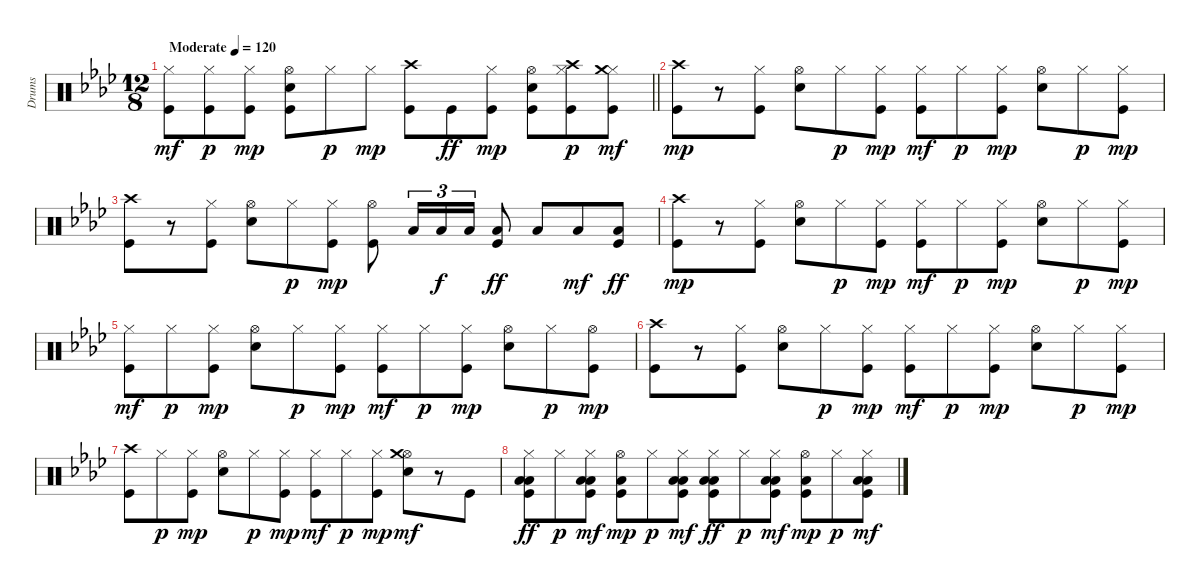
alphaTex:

\track ("Drums" "Drums") {instrument percussion}
\staff {score}
\articulation defaults
\ts (12 8)
\tempo (120 "Moderate")
\clef neutral
\barLineRight lightlight
\ks ab
("Kick (hit)" "Hi-Hat (closed)").8{dy mf} ("Kick (hit)" "Hi-Hat (closed)").8{dy p} ("Kick (hit)" "Hi-Hat (closed)").8{dy mp} ("Kick (hit)" "Electric Snare (hit)" "Hi-Hat (open)").8 "Hi-Hat (closed)".8{dy p} "Hi-Hat (closed)".8{dy mp} ("Kick (hit)" "Crash high (hit)").8 "Kick (hit)".8{dy ff} ("Kick (hit)" "Hi-Hat (closed)").8{dy mp} ("Kick (hit)" "Electric Snare (hit)" "Hi-Hat (open)").8 ("Kick (hit)" "Hi-Hat (closed)" "Crash high (hit)").8{dy p} ("Kick (hit)" "Hi-Hat (closed)" "Crash medium (hit)").8{dy mf} |
("Kick (hit)" "Crash high (hit)").8{dy mp} r.8 ("Kick (hit)" "Hi-Hat (closed)").8 ("Electric Snare (hit)" "Hi-Hat (open)").8 "Hi-Hat (closed)".8{dy p} ("Kick (hit)" "Hi-Hat (closed)").8{dy mp} ("Kick (hit)" "Hi-Hat (closed)").8{dy mf} "Hi-Hat (closed)".8{dy p} ("Kick (hit)" "Hi-Hat (closed)").8{dy mp} ("Electric Snare (hit)" "Hi-Hat (open)").8 "Hi-Hat (closed)".8{dy p} ("Kick (hit)" "Hi-Hat (closed)").8{dy mp} |
("Kick (hit)" "Crash high (hit)").8 r.8 ("Kick (hit)" "Hi-Hat (closed)").8 ("Electric Snare (hit)" "Hi-Hat (open)").8 "Hi-Hat (closed)".8{dy p} ("Kick (hit)" "Hi-Hat (closed)").8{dy mp} ("Kick (hit)" "Hi-Hat (open)").8 "Low Tom (hit)".16{tu (3 2)} "Low Tom (hit)".16{tu (3 2) dy f} "Low Tom (hit)".16{tu (3 2)} ("Kick (hit)" "Low Tom (hit)").8{dy ff} "Low Floor Tom (hit)".8 "Low Floor Tom (hit)".8{dy mf} ("Kick (hit)" "Low Floor Tom (hit)").8{dy ff} |
("Kick (hit)" "Crash high (hit)").8{dy mp} r.8 ("Kick (hit)" "Hi-Hat (closed)").8 ("Electric Snare (hit)" "Hi-Hat (open)").8 "Hi-Hat (closed)".8{dy p} ("Kick (hit)" "Hi-Hat (closed)").8{dy mp} ("Kick (hit)" "Hi-Hat (closed)").8{dy mf} "Hi-Hat (closed)".8{dy p} ("Kick (hit)" "Hi-Hat (closed)").8{dy mp} ("Electric Snare (hit)" "Hi-Hat (open)").8 "Hi-Hat (closed)".8{dy p} ("Kick (hit)" "Hi-Hat (closed)").8{dy mp} |
("Kick (hit)" "Hi-Hat (closed)").8{dy mf} "Hi-Hat (closed)".8{dy p} ("Kick (hit)" "Hi-Hat (closed)").8{dy mp} ("Electric Snare (hit)" "Hi-Hat (open)").8 "Hi-Hat (closed)".8{dy p} ("Kick (hit)" "Hi-Hat (closed)").8{dy mp} ("Kick (hit)" "Hi-Hat (closed)").8{dy mf} "Hi-Hat (closed)".8{dy p} ("Kick (hit)" "Hi-Hat (closed)").8{dy mp} ("Electric Snare (hit)" "Hi-Hat (open)").8 "Hi-Hat (closed)".8{dy p} ("Kick (hit)" "Hi-Hat (open)").8{dy mp} |
("Kick (hit)" "Crash high (hit)").8 r.8 ("Kick (hit)" "Hi-Hat (closed)").8 ("Electric Snare (hit)" "Hi-Hat (open)").8 "Hi-Hat (closed)".8{dy p} ("Kick (hit)" "Hi-Hat (closed)").8{dy mp} ("Kick (hit)" "Hi-Hat (closed)").8{dy mf} "Hi-Hat (closed)".8{dy p} ("Kick (hit)" "Hi-Hat (closed)").8{dy mp} ("Electric Snare (hit)" "Hi-Hat (open)").8 "Hi-Hat (closed)".8{dy p} ("Kick (hit)" "Hi-Hat (closed)").8{dy mp} |
("Kick (hit)" "Crash high (hit)").8 "Hi-Hat (closed)".8{dy p} ("Kick (hit)" "Hi-Hat (closed)").8{dy mp} ("Electric Snare (hit)" "Hi-Hat (open)").8 "Hi-Hat (closed)".8{dy p} ("Kick (hit)" "Hi-Hat (closed)").8{dy mp} ("Kick (hit)" "Hi-Hat (closed)").8{dy mf} "Hi-Hat (closed)".8{dy p} ("Kick (hit)" "Hi-Hat (closed)").8{dy mp} ("Electric Snare (hit)" "Hi-Hat (open)" "Crash medium (hit)").8{dy mf} r.8 "Kick (hit)".8 |
("Kick (hit)" "Low Floor Tom (hit)" "Hi-Hat (closed)" "Low Tom (hit)").8{dy ff} "Hi-Hat (closed)".8{dy p} ("Kick (hit)" "Low Floor Tom (hit)" "Hi-Hat (closed)" "Low Tom (hit)").8{dy mf} ("Kick (hit)" "Low Floor Tom (hit)" "Hi-Hat (open)").8{dy mp} "Hi-Hat (closed)".8{dy p} ("Kick (hit)" "Low Floor Tom (hit)" "Hi-Hat (closed)" "Low Tom (hit)").8{dy mf} ("Kick (hit)" "Low Floor Tom (hit)" "Hi-Hat (closed)" "Low Tom (hit)").8{dy ff} "Hi-Hat (closed)".8{dy p} ("Kick (hit)" "Low Floor Tom (hit)" "Hi-Hat (closed)" "Low Tom (hit)").8{dy mf} ("Kick (hit)" "Low Floor Tom (hit)" "Hi-Hat (open)").8{dy mp} "Hi-Hat (closed)".8{dy p} ("Kick (hit)" "Low Floor Tom (hit)" "Hi-Hat (closed)" "Low Tom (hit)").8{dy mf}
